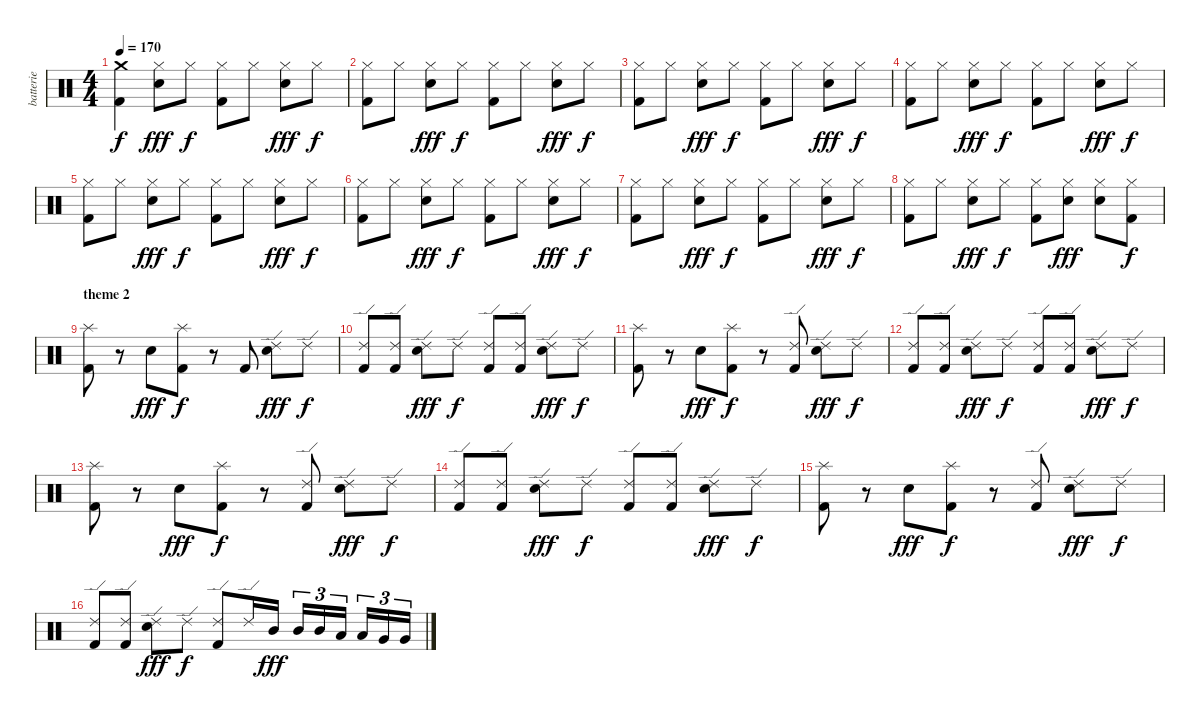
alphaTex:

\track ("batterie" "batterie") {instrument percussion}
\staff {score}
\articulation defaults
\ts (4 4)
\tempo 170
\clef neutral
\ks c
("Crash medium (hit)" "Kick (hit) 2").4{dy f} ("Hi-Hat (closed)" "Electric Snare (hit)").8{dy fff} "Hi-Hat (closed)".8{dy f} ("Hi-Hat (closed)" "Kick (hit) 2").8 "Hi-Hat (closed)".8 ("Hi-Hat (closed)" "Electric Snare (hit)").8{dy fff} "Hi-Hat (closed)".8{dy f} |
("Hi-Hat (closed)" "Kick (hit) 2").8 "Hi-Hat (closed)".8 ("Hi-Hat (closed)" "Electric Snare (hit)").8{dy fff} "Hi-Hat (closed)".8{dy f} ("Hi-Hat (closed)" "Kick (hit) 2").8 "Hi-Hat (closed)".8 ("Hi-Hat (closed)" "Electric Snare (hit)").8{dy fff} "Hi-Hat (closed)".8{dy f} |
("Hi-Hat (closed)" "Kick (hit) 2").8 "Hi-Hat (closed)".8 ("Hi-Hat (closed)" "Electric Snare (hit)").8{dy fff} "Hi-Hat (closed)".8{dy f} ("Hi-Hat (closed)" "Kick (hit) 2").8 "Hi-Hat (closed)".8 ("Hi-Hat (closed)" "Electric Snare (hit)").8{dy fff} "Hi-Hat (closed)".8{dy f} |
("Hi-Hat (closed)" "Kick (hit) 2").8 "Hi-Hat (closed)".8 ("Hi-Hat (closed)" "Electric Snare (hit)").8{dy fff} "Hi-Hat (closed)".8{dy f} ("Hi-Hat (closed)" "Kick (hit) 2").8 "Hi-Hat (closed)".8 ("Hi-Hat (closed)" "Electric Snare (hit)").8{dy fff} "Hi-Hat (closed)".8{dy f} |
("Hi-Hat (closed)" "Kick (hit) 2").8 "Hi-Hat (closed)".8 ("Hi-Hat (closed)" "Electric Snare (hit)").8{dy fff} "Hi-Hat (closed)".8{dy f} ("Hi-Hat (closed)" "Kick (hit) 2").8 "Hi-Hat (closed)".8 ("Hi-Hat (closed)" "Electric Snare (hit)").8{dy fff} "Hi-Hat (closed)".8{dy f} |
("Hi-Hat (closed)" "Kick (hit) 2").8 "Hi-Hat (closed)".8 ("Hi-Hat (closed)" "Electric Snare (hit)").8{dy fff} "Hi-Hat (closed)".8{dy f} ("Hi-Hat (closed)" "Kick (hit) 2").8 "Hi-Hat (closed)".8 ("Hi-Hat (closed)" "Electric Snare (hit)").8{dy fff} "Hi-Hat (closed)".8{dy f} |
("Hi-Hat (closed)" "Kick (hit) 2").8 "Hi-Hat (closed)".8 ("Hi-Hat (closed)" "Electric Snare (hit)").8{dy fff} "Hi-Hat (closed)".8{dy f} ("Hi-Hat (closed)" "Kick (hit) 2").8 "Hi-Hat (closed)".8 ("Hi-Hat (closed)" "Electric Snare (hit)").8{dy fff} "Hi-Hat (closed)".8{dy f} |
("Hi-Hat (closed)" "Kick (hit) 2").8 "Hi-Hat (closed)".8 ("Hi-Hat (closed)" "Electric Snare (hit)").8{dy fff} "Hi-Hat (closed)".8{dy f} ("Hi-Hat (closed)" "Kick (hit) 2").8 ("Hi-Hat (closed)" "Electric Snare (hit)").8{dy fff} ("Hi-Hat (closed)" "Electric Snare (hit)").8 ("Hi-Hat (closed)" "Kick (hit) 2").8{dy f} |
\section ("" "theme 2")
("Splash (hit)" "Kick (hit) 2").8 r.8 "Electric Snare (hit)".8{dy fff} ("Splash (hit)" "Kick (hit) 2").8{dy f} r.8 "Kick (hit) 2".8 ("Ride (edge) 2" "Electric Snare (hit)").8{dy fff} "Ride (edge) 2".8{dy f} |
("Ride (edge) 2" "Kick (hit) 2").8 ("Ride (edge) 2" "Kick (hit) 2").8 ("Ride (edge) 2" "Electric Snare (hit)").8{dy fff} "Ride (edge) 2".8{dy f} ("Ride (edge) 2" "Kick (hit) 2").8 ("Ride (edge) 2" "Kick (hit) 2").8 ("Ride (edge) 2" "Electric Snare (hit)").8{dy fff} "Ride (edge) 2".8{dy f} |
("Splash (hit)" "Kick (hit) 2").8 r.8 "Electric Snare (hit)".8{dy fff} ("Splash (hit)" "Kick (hit) 2").8{dy f} r.8 ("Ride (edge) 2" "Kick (hit) 2").8 ("Ride (edge) 2" "Electric Snare (hit)").8{dy fff} "Ride (edge) 2".8{dy f} |
("Ride (edge) 2" "Kick (hit) 2").8 ("Ride (edge) 2" "Kick (hit) 2").8 ("Ride (edge) 2" "Electric Snare (hit)").8{dy fff} "Ride (edge) 2".8{dy f} ("Ride (edge) 2" "Kick (hit) 2").8 ("Ride (edge) 2" "Kick (hit) 2").8 ("Ride (edge) 2" "Electric Snare (hit)").8{dy fff} "Ride (edge) 2".8{dy f} |
("Splash (hit)" "Kick (hit) 2").8 r.8 "Electric Snare (hit)".8{dy fff} ("Splash (hit)" "Kick (hit) 2").8{dy f} r.8 ("Ride (edge) 2" "Kick (hit) 2").8 ("Ride (edge) 2" "Electric Snare (hit)").8{dy fff} "Ride (edge) 2".8{dy f} |
("Ride (edge) 2" "Kick (hit) 2").8 ("Ride (edge) 2" "Kick (hit) 2").8 ("Ride (edge) 2" "Electric Snare (hit)").8{dy fff} "Ride (edge) 2".8{dy f} ("Ride (edge) 2" "Kick (hit) 2").8 ("Ride (edge) 2" "Kick (hit) 2").8 ("Ride (edge) 2" "Electric Snare (hit)").8{dy fff} "Ride (edge) 2".8{dy f} |
("Splash (hit)" "Kick (hit) 2").8 r.8 "Electric Snare (hit)".8{dy fff} ("Splash (hit)" "Kick (hit) 2").8{dy f} r.8 ("Ride (edge) 2" "Kick (hit) 2").8 ("Ride (edge) 2" "Electric Snare (hit)").8{dy fff} "Ride (edge) 2".8{dy f} |
("Ride (edge) 2" "Kick (hit) 2").8 ("Ride (edge) 2" "Kick (hit) 2").8 ("Ride (edge) 2" "Electric Snare (hit)").8{dy fff} "Ride (edge) 2".8{dy f} ("Ride (edge) 2" "Kick (hit) 2").8 "Ride (edge) 2".16 "Mid Tom (hit)".16{dy fff} "Mid Tom (hit)".16{tu (3 2)} "Mid Tom (hit)".16{tu (3 2)} "Low Tom (hit)".16{tu (3 2)} "Low Tom (hit)".16{tu (3 2)} "Very Low Tom (hit)".16{tu (3 2)} "Very Low Tom (hit)".16{tu (3 2)}
